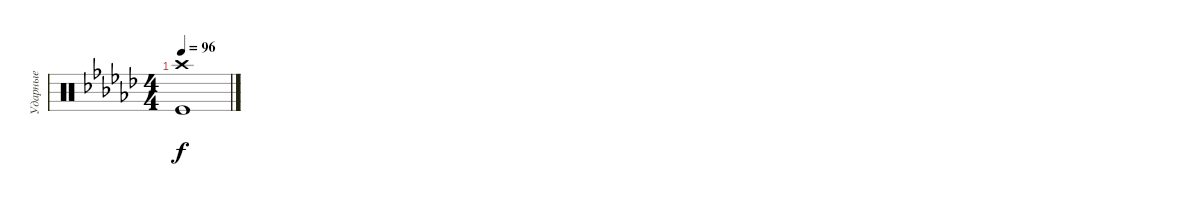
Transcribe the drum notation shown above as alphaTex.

\track ("Ударные" "Ударные") {instrument percussion}
\staff {score}
\articulation defaults
\ts (4 4)
\tempo 96
\clef neutral
\ks ebminor
("Crash high (hit)" "Kick (hit)").1{dy f}
